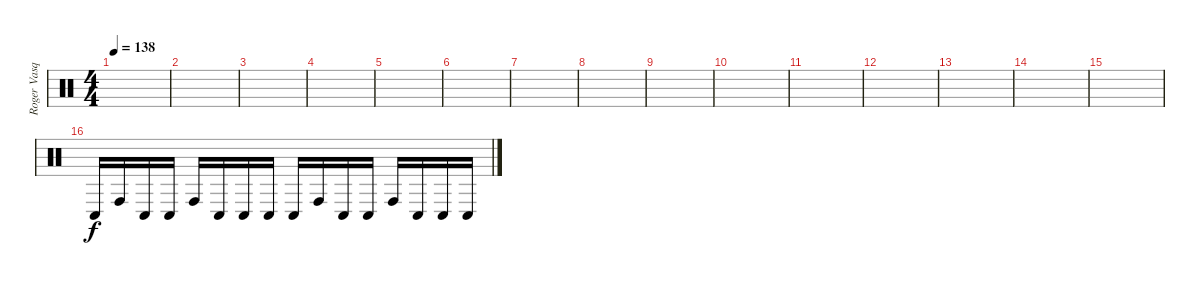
\track ("Roger Vasquez - Percussion" "Roger Vasq") {instrument percussion}
\staff {score}
\articulation defaults
\ts (4 4)
\tempo 138
\clef neutral
\ks c
|
|
|
|
|
|
|
|
|
|
|
|
|
|
|
"Conga low (hit)".16 "Conga high (hit)".16 "Conga low (hit)".16 "Conga low (hit)".16 "Conga high (hit)".16 "Conga low (hit)".16 "Conga low (hit)".16 "Conga low (hit)".16 "Conga low (hit)".16 "Conga high (hit)".16 "Conga low (hit)".16 "Conga low (hit)".16 "Conga high (hit)".16 "Conga low (hit)".16 "Conga low (hit)".16 "Conga low (hit)".16
